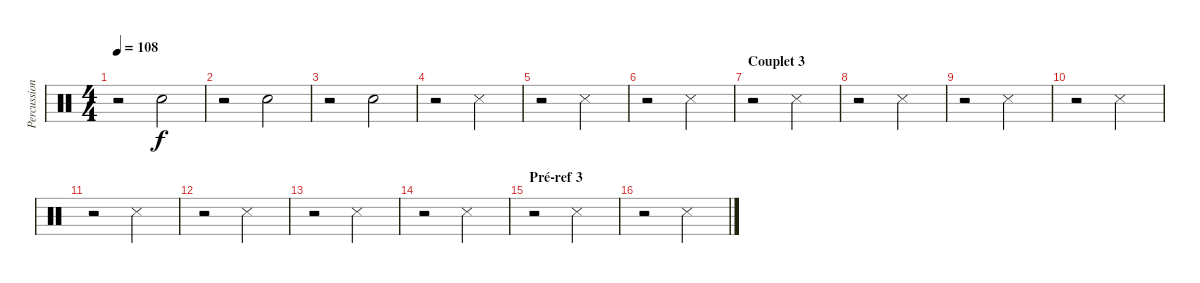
\track ("Percussions (Porcaro J.)" "Percussion") {instrument percussion}
\staff {score}
\articulation defaults
\ts (4 4)
\tempo 108
\clef neutral
\ks c
r.2{dy f} "Snare (hit) 2".2 |
r.2 "Snare (hit) 2".2 |
r.2 "Snare (hit) 2".2 |
r.2 "Snare (side stick) 3".2 |
r.2 "Snare (side stick) 3".2 |
r.2 "Snare (side stick) 3".2 |
\section ("" "Couplet 3")
r.2 "Snare (side stick) 3".2 |
r.2 "Snare (side stick) 3".2 |
r.2 "Snare (side stick) 3".2 |
r.2 "Snare (side stick) 3".2 |
r.2 "Snare (side stick) 3".2 |
r.2 "Snare (side stick) 3".2 |
r.2 "Snare (side stick) 3".2 |
r.2 "Snare (side stick) 3".2 |
\section ("" "Pré-ref 3")
r.2 "Snare (side stick) 3".2 |
r.2 "Snare (side stick) 3".2
